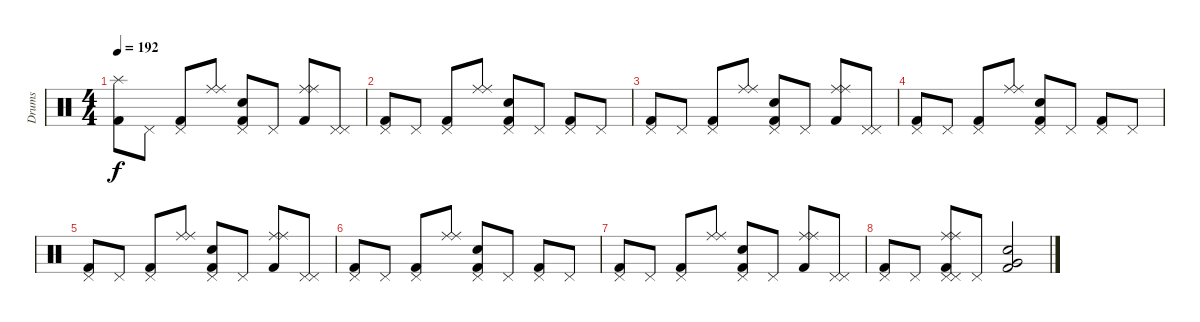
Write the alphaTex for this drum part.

\track ("Drums" "Drums") {instrument percussion}
\staff {score}
\articulation defaults
\ts (4 4)
\tempo 192
\clef neutral
\ks c
("Splash (hit)" "Kick (hit) 2").8{dy f} "Pedal Hi-Hat (hit)".8 ("Pedal Hi-Hat (hit)" "Kick (hit) 2").8 ("Ride (middle)" "Ride (middle)").8 ("Pedal Hi-Hat (hit)" "Electric Snare (hit)" "Kick (hit) 2").8 "Pedal Hi-Hat (hit)".8 ("Ride (middle)" "Ride (middle)" "Kick (hit) 2").8 ("Pedal Hi-Hat (hit)" "Pedal Hi-Hat (hit)").8 |
("Pedal Hi-Hat (hit)" "Kick (hit) 2").8 "Pedal Hi-Hat (hit)".8 ("Pedal Hi-Hat (hit)" "Kick (hit) 2").8 ("Ride (middle)" "Ride (middle)").8 ("Pedal Hi-Hat (hit)" "Electric Snare (hit)" "Kick (hit) 2").8 "Pedal Hi-Hat (hit)".8 ("Pedal Hi-Hat (hit)" "Kick (hit) 2").8 "Pedal Hi-Hat (hit)".8 |
("Pedal Hi-Hat (hit)" "Kick (hit) 2").8 "Pedal Hi-Hat (hit)".8 ("Pedal Hi-Hat (hit)" "Kick (hit) 2").8 ("Ride (middle)" "Ride (middle)").8 ("Pedal Hi-Hat (hit)" "Electric Snare (hit)" "Kick (hit) 2").8 "Pedal Hi-Hat (hit)".8 ("Ride (middle)" "Ride (middle)" "Kick (hit) 2").8 ("Pedal Hi-Hat (hit)" "Pedal Hi-Hat (hit)").8 |
("Pedal Hi-Hat (hit)" "Kick (hit) 2").8 "Pedal Hi-Hat (hit)".8 ("Pedal Hi-Hat (hit)" "Kick (hit) 2").8 ("Ride (middle)" "Ride (middle)").8 ("Pedal Hi-Hat (hit)" "Electric Snare (hit)" "Kick (hit) 2").8 "Pedal Hi-Hat (hit)".8 ("Pedal Hi-Hat (hit)" "Kick (hit) 2").8 "Pedal Hi-Hat (hit)".8 |
("Pedal Hi-Hat (hit)" "Kick (hit) 2").8 "Pedal Hi-Hat (hit)".8 ("Pedal Hi-Hat (hit)" "Kick (hit) 2").8 ("Ride (middle)" "Ride (middle)").8 ("Pedal Hi-Hat (hit)" "Electric Snare (hit)" "Kick (hit) 2").8 "Pedal Hi-Hat (hit)".8 ("Ride (middle)" "Ride (middle)" "Kick (hit) 2").8 ("Pedal Hi-Hat (hit)" "Pedal Hi-Hat (hit)").8 |
("Pedal Hi-Hat (hit)" "Kick (hit) 2").8 "Pedal Hi-Hat (hit)".8 ("Pedal Hi-Hat (hit)" "Kick (hit) 2").8 ("Ride (middle)" "Ride (middle)").8 ("Pedal Hi-Hat (hit)" "Electric Snare (hit)" "Kick (hit) 2").8 "Pedal Hi-Hat (hit)".8 ("Pedal Hi-Hat (hit)" "Kick (hit) 2").8 "Pedal Hi-Hat (hit)".8 |
("Pedal Hi-Hat (hit)" "Kick (hit) 2").8 "Pedal Hi-Hat (hit)".8 ("Pedal Hi-Hat (hit)" "Kick (hit) 2").8 ("Ride (middle)" "Ride (middle)").8 ("Pedal Hi-Hat (hit)" "Electric Snare (hit)" "Kick (hit) 2").8 "Pedal Hi-Hat (hit)".8 ("Ride (middle)" "Ride (middle)" "Kick (hit) 2").8 ("Pedal Hi-Hat (hit)" "Pedal Hi-Hat (hit)").8 |
("Pedal Hi-Hat (hit)" "Kick (hit) 2").8 "Pedal Hi-Hat (hit)".8 ("Ride (middle)" "Ride (middle)" "Pedal Hi-Hat (hit)" "Pedal Hi-Hat (hit)" "Kick (hit) 2").8 "Pedal Hi-Hat (hit)".8 ("Very Low Tom (hit)" "Electric Snare (hit)" "Kick (hit) 2").2
